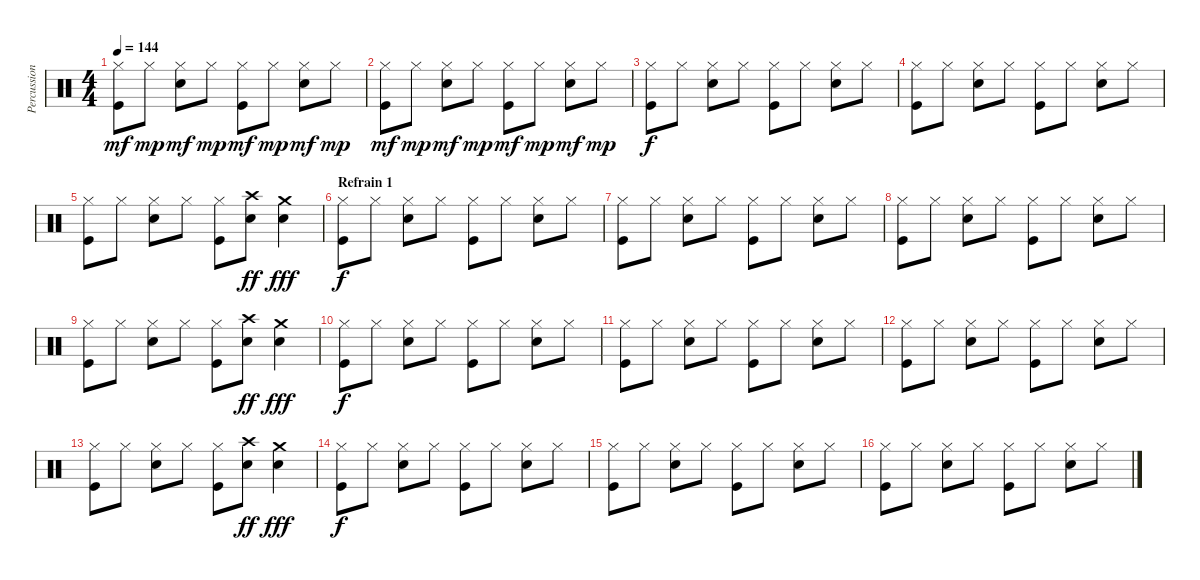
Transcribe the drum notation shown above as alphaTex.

\track ("Percussions" "Percussion") {instrument percussion}
\staff {score}
\articulation defaults
\ts (4 4)
\tempo 144
\clef neutral
\ks c
("Hi-Hat (closed)" "Kick (hit)").8{dy mf} "Hi-Hat (closed)".8{dy mp} ("Hi-Hat (closed)" "Snare (hit) 2").8{dy mf} "Hi-Hat (closed)".8{dy mp} ("Hi-Hat (closed)" "Kick (hit)").8{dy mf} "Hi-Hat (closed)".8{dy mp} ("Hi-Hat (closed)" "Snare (hit) 2").8{dy mf} "Hi-Hat (closed)".8{dy mp} |
("Hi-Hat (closed)" "Kick (hit)").8{dy mf} "Hi-Hat (closed)".8{dy mp} ("Hi-Hat (closed)" "Snare (hit) 2").8{dy mf} "Hi-Hat (closed)".8{dy mp} ("Hi-Hat (closed)" "Kick (hit)").8{dy mf} "Hi-Hat (closed)".8{dy mp} ("Hi-Hat (closed)" "Snare (hit) 2").8{dy mf} "Hi-Hat (closed)".8{dy mp} |
("Hi-Hat (closed)" "Kick (hit)").8{dy f} "Hi-Hat (closed)".8 ("Hi-Hat (closed)" "Snare (hit) 2").8 "Hi-Hat (closed)".8 ("Hi-Hat (closed)" "Kick (hit)").8 "Hi-Hat (closed)".8 ("Hi-Hat (closed)" "Snare (hit) 2").8 "Hi-Hat (closed)".8 |
("Hi-Hat (closed)" "Kick (hit)").8 "Hi-Hat (closed)".8 ("Hi-Hat (closed)" "Snare (hit) 2").8 "Hi-Hat (closed)".8 ("Hi-Hat (closed)" "Kick (hit)").8 "Hi-Hat (closed)".8 ("Hi-Hat (closed)" "Snare (hit) 2").8 "Hi-Hat (closed)".8 |
("Hi-Hat (closed)" "Kick (hit)").8 "Hi-Hat (closed)".8 ("Hi-Hat (closed)" "Snare (hit) 2").8 "Hi-Hat (closed)".8 ("Hi-Hat (closed)" "Kick (hit)").8 ("Crash high (hit)" "Snare (hit) 2").8{dy ff} ("Crash medium (hit)" "Snare (hit) 2").4{dy fff} |
\section ("" "Refrain 1")
("Hi-Hat (closed)" "Kick (hit)").8{dy f} "Hi-Hat (closed)".8 ("Hi-Hat (closed)" "Snare (hit) 2").8 "Hi-Hat (closed)".8 ("Hi-Hat (closed)" "Kick (hit)").8 "Hi-Hat (closed)".8 ("Hi-Hat (closed)" "Snare (hit) 2").8 "Hi-Hat (closed)".8 |
("Hi-Hat (closed)" "Kick (hit)").8 "Hi-Hat (closed)".8 ("Hi-Hat (closed)" "Snare (hit) 2").8 "Hi-Hat (closed)".8 ("Hi-Hat (closed)" "Kick (hit)").8 "Hi-Hat (closed)".8 ("Hi-Hat (closed)" "Snare (hit) 2").8 "Hi-Hat (closed)".8 |
("Hi-Hat (closed)" "Kick (hit)").8 "Hi-Hat (closed)".8 ("Hi-Hat (closed)" "Snare (hit) 2").8 "Hi-Hat (closed)".8 ("Hi-Hat (closed)" "Kick (hit)").8 "Hi-Hat (closed)".8 ("Hi-Hat (closed)" "Snare (hit) 2").8 "Hi-Hat (closed)".8 |
("Hi-Hat (closed)" "Kick (hit)").8 "Hi-Hat (closed)".8 ("Hi-Hat (closed)" "Snare (hit) 2").8 "Hi-Hat (closed)".8 ("Hi-Hat (closed)" "Kick (hit)").8 ("Crash high (hit)" "Snare (hit) 2").8{dy ff} ("Crash medium (hit)" "Snare (hit) 2").4{dy fff} |
("Hi-Hat (closed)" "Kick (hit)").8{dy f} "Hi-Hat (closed)".8 ("Hi-Hat (closed)" "Snare (hit) 2").8 "Hi-Hat (closed)".8 ("Hi-Hat (closed)" "Kick (hit)").8 "Hi-Hat (closed)".8 ("Hi-Hat (closed)" "Snare (hit) 2").8 "Hi-Hat (closed)".8 |
("Hi-Hat (closed)" "Kick (hit)").8 "Hi-Hat (closed)".8 ("Hi-Hat (closed)" "Snare (hit) 2").8 "Hi-Hat (closed)".8 ("Hi-Hat (closed)" "Kick (hit)").8 "Hi-Hat (closed)".8 ("Hi-Hat (closed)" "Snare (hit) 2").8 "Hi-Hat (closed)".8 |
("Hi-Hat (closed)" "Kick (hit)").8 "Hi-Hat (closed)".8 ("Hi-Hat (closed)" "Snare (hit) 2").8 "Hi-Hat (closed)".8 ("Hi-Hat (closed)" "Kick (hit)").8 "Hi-Hat (closed)".8 ("Hi-Hat (closed)" "Snare (hit) 2").8 "Hi-Hat (closed)".8 |
("Hi-Hat (closed)" "Kick (hit)").8 "Hi-Hat (closed)".8 ("Hi-Hat (closed)" "Snare (hit) 2").8 "Hi-Hat (closed)".8 ("Hi-Hat (closed)" "Kick (hit)").8 ("Crash high (hit)" "Snare (hit) 2").8{dy ff} ("Crash medium (hit)" "Snare (hit) 2").4{dy fff} |
("Hi-Hat (closed)" "Kick (hit)").8{dy f} "Hi-Hat (closed)".8 ("Hi-Hat (closed)" "Snare (hit) 2").8 "Hi-Hat (closed)".8 ("Hi-Hat (closed)" "Kick (hit)").8 "Hi-Hat (closed)".8 ("Hi-Hat (closed)" "Snare (hit) 2").8 "Hi-Hat (closed)".8 |
("Hi-Hat (closed)" "Kick (hit)").8 "Hi-Hat (closed)".8 ("Hi-Hat (closed)" "Snare (hit) 2").8 "Hi-Hat (closed)".8 ("Hi-Hat (closed)" "Kick (hit)").8 "Hi-Hat (closed)".8 ("Hi-Hat (closed)" "Snare (hit) 2").8 "Hi-Hat (closed)".8 |
("Hi-Hat (closed)" "Kick (hit)").8 "Hi-Hat (closed)".8 ("Hi-Hat (closed)" "Snare (hit) 2").8 "Hi-Hat (closed)".8 ("Hi-Hat (closed)" "Kick (hit)").8 "Hi-Hat (closed)".8 ("Hi-Hat (closed)" "Snare (hit) 2").8 "Hi-Hat (closed)".8
